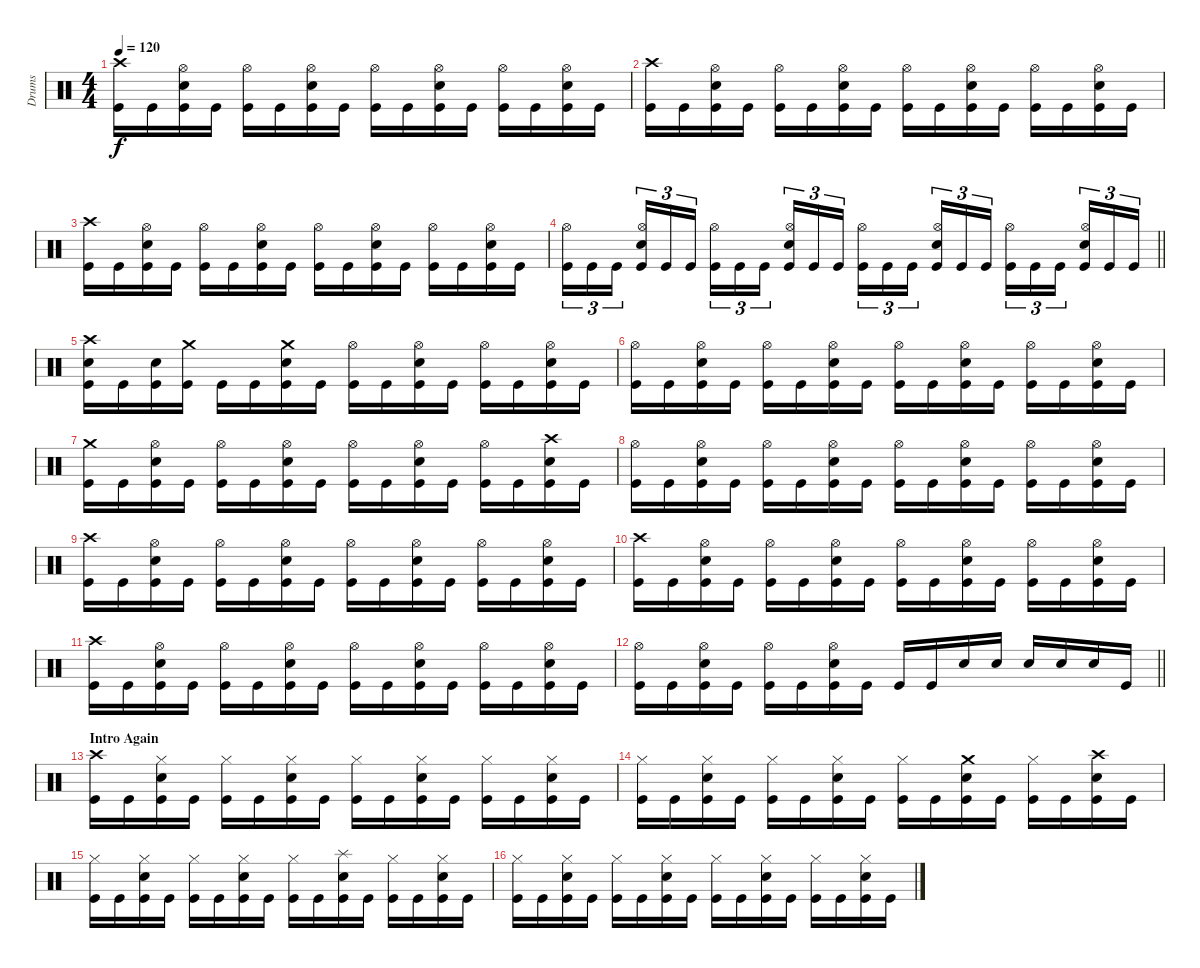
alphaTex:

\track ("Drums" "Drums") {instrument percussion}
\staff {score}
\articulation defaults
\ts (4 4)
\tempo 120
\clef neutral
\ks c
("Crash high (hit)" "Kick (hit)").16{dy f} "Kick (hit)".16 ("Hi-Hat (open)" "Electric Snare (hit)" "Kick (hit)").16 "Kick (hit)".16 ("Hi-Hat (open)" "Kick (hit)").16 "Kick (hit)".16 ("Hi-Hat (open)" "Electric Snare (hit)" "Kick (hit)").16 "Kick (hit)".16 ("Hi-Hat (open)" "Kick (hit)").16 "Kick (hit)".16 ("Hi-Hat (open)" "Electric Snare (hit)" "Kick (hit)").16 "Kick (hit)".16 ("Hi-Hat (open)" "Kick (hit)").16 "Kick (hit)".16 ("Hi-Hat (open)" "Electric Snare (hit)" "Kick (hit)").16 "Kick (hit)".16 |
("Crash high (hit)" "Kick (hit)").16 "Kick (hit)".16 ("Hi-Hat (open)" "Electric Snare (hit)" "Kick (hit)").16 "Kick (hit)".16 ("Hi-Hat (open)" "Kick (hit)").16 "Kick (hit)".16 ("Hi-Hat (open)" "Electric Snare (hit)" "Kick (hit)").16 "Kick (hit)".16 ("Hi-Hat (open)" "Kick (hit)").16 "Kick (hit)".16 ("Hi-Hat (open)" "Electric Snare (hit)" "Kick (hit)").16 "Kick (hit)".16 ("Hi-Hat (open)" "Kick (hit)").16 "Kick (hit)".16 ("Hi-Hat (open)" "Electric Snare (hit)" "Kick (hit)").16 "Kick (hit)".16 |
("Crash high (hit)" "Kick (hit)").16 "Kick (hit)".16 ("Hi-Hat (open)" "Electric Snare (hit)" "Kick (hit)").16 "Kick (hit)".16 ("Hi-Hat (open)" "Kick (hit)").16 "Kick (hit)".16 ("Hi-Hat (open)" "Electric Snare (hit)" "Kick (hit)").16 "Kick (hit)".16 ("Hi-Hat (open)" "Kick (hit)").16 "Kick (hit)".16 ("Hi-Hat (open)" "Electric Snare (hit)" "Kick (hit)").16 "Kick (hit)".16 ("Hi-Hat (open)" "Kick (hit)").16 "Kick (hit)".16 ("Hi-Hat (open)" "Electric Snare (hit)" "Kick (hit)").16 "Kick (hit)".16 |
\barLineRight lightlight
("Hi-Hat (open)" "Kick (hit)").16{tu (3 2)} "Kick (hit)".16{tu (3 2)} "Kick (hit)".16{tu (3 2)} ("Hi-Hat (open)" "Electric Snare (hit)" "Kick (hit)").16{tu (3 2)} "Kick (hit)".16{tu (3 2)} "Kick (hit)".16{tu (3 2)} ("Hi-Hat (open)" "Kick (hit)").16{tu (3 2)} "Kick (hit)".16{tu (3 2)} "Kick (hit)".16{tu (3 2)} ("Hi-Hat (open)" "Electric Snare (hit)" "Kick (hit)").16{tu (3 2)} "Kick (hit)".16{tu (3 2)} "Kick (hit)".16{tu (3 2)} ("Hi-Hat (open)" "Kick (hit)").16{tu (3 2)} "Kick (hit)".16{tu (3 2)} "Kick (hit)".16{tu (3 2)} ("Hi-Hat (open)" "Electric Snare (hit)" "Kick (hit)").16{tu (3 2)} "Kick (hit)".16{tu (3 2)} "Kick (hit)".16{tu (3 2)} ("Hi-Hat (open)" "Kick (hit)").16{tu (3 2)} "Kick (hit)".16{tu (3 2)} "Kick (hit)".16{tu (3 2)} ("Hi-Hat (open)" "Electric Snare (hit)" "Kick (hit)").16{tu (3 2)} "Kick (hit)".16{tu (3 2)} "Kick (hit)".16{tu (3 2)} |
("Crash high (hit)" "Electric Snare (hit)" "Kick (hit)").16 "Kick (hit)".16 ("Electric Snare (hit)" "Kick (hit)").16 ("Crash medium (hit)" "Kick (hit)").16 "Kick (hit)".16 "Kick (hit)".16 ("Crash medium (hit)" "Electric Snare (hit)" "Kick (hit)").16 "Kick (hit)".16 ("Hi-Hat (open)" "Kick (hit)").16 "Kick (hit)".16 ("Hi-Hat (open)" "Electric Snare (hit)" "Kick (hit)").16 "Kick (hit)".16 ("Hi-Hat (open)" "Kick (hit)").16 "Kick (hit)".16 ("Hi-Hat (open)" "Electric Snare (hit)" "Kick (hit)").16 "Kick (hit)".16 |
("Hi-Hat (open)" "Kick (hit)").16 "Kick (hit)".16 ("Hi-Hat (open)" "Electric Snare (hit)" "Kick (hit)").16 "Kick (hit)".16 ("Hi-Hat (open)" "Kick (hit)").16 "Kick (hit)".16 ("Hi-Hat (open)" "Electric Snare (hit)" "Kick (hit)").16 "Kick (hit)".16 ("Hi-Hat (open)" "Kick (hit)").16 "Kick (hit)".16 ("Hi-Hat (open)" "Electric Snare (hit)" "Kick (hit)").16 "Kick (hit)".16 ("Hi-Hat (open)" "Kick (hit)").16 "Kick (hit)".16 ("Hi-Hat (open)" "Electric Snare (hit)" "Kick (hit)").16 "Kick (hit)".16 |
("Crash medium (hit)" "Kick (hit)").16 "Kick (hit)".16 ("Hi-Hat (open)" "Electric Snare (hit)" "Kick (hit)").16 "Kick (hit)".16 ("Hi-Hat (open)" "Kick (hit)").16 "Kick (hit)".16 ("Hi-Hat (open)" "Electric Snare (hit)" "Kick (hit)").16 "Kick (hit)".16 ("Hi-Hat (open)" "Kick (hit)").16 "Kick (hit)".16 ("Hi-Hat (open)" "Electric Snare (hit)" "Kick (hit)").16 "Kick (hit)".16 ("Hi-Hat (open)" "Kick (hit)").16 "Kick (hit)".16 ("Crash high (hit)" "Electric Snare (hit)" "Kick (hit)").16 "Kick (hit)".16 |
("Hi-Hat (open)" "Kick (hit)").16 "Kick (hit)".16 ("Hi-Hat (open)" "Electric Snare (hit)" "Kick (hit)").16 "Kick (hit)".16 ("Hi-Hat (open)" "Kick (hit)").16 "Kick (hit)".16 ("Hi-Hat (open)" "Electric Snare (hit)" "Kick (hit)").16 "Kick (hit)".16 ("Hi-Hat (open)" "Kick (hit)").16 "Kick (hit)".16 ("Hi-Hat (open)" "Electric Snare (hit)" "Kick (hit)").16 "Kick (hit)".16 ("Hi-Hat (open)" "Kick (hit)").16 "Kick (hit)".16 ("Hi-Hat (open)" "Electric Snare (hit)" "Kick (hit)").16 "Kick (hit)".16 |
("Crash high (hit)" "Kick (hit)").16 "Kick (hit)".16 ("Hi-Hat (open)" "Electric Snare (hit)" "Kick (hit)").16 "Kick (hit)".16 ("Hi-Hat (open)" "Kick (hit)").16 "Kick (hit)".16 ("Hi-Hat (open)" "Electric Snare (hit)" "Kick (hit)").16 "Kick (hit)".16 ("Hi-Hat (open)" "Kick (hit)").16 "Kick (hit)".16 ("Hi-Hat (open)" "Electric Snare (hit)" "Kick (hit)").16 "Kick (hit)".16 ("Hi-Hat (open)" "Kick (hit)").16 "Kick (hit)".16 ("Hi-Hat (open)" "Electric Snare (hit)" "Kick (hit)").16 "Kick (hit)".16 |
("Crash high (hit)" "Kick (hit)").16 "Kick (hit)".16 ("Hi-Hat (open)" "Electric Snare (hit)" "Kick (hit)").16 "Kick (hit)".16 ("Hi-Hat (open)" "Kick (hit)").16 "Kick (hit)".16 ("Hi-Hat (open)" "Electric Snare (hit)" "Kick (hit)").16 "Kick (hit)".16 ("Hi-Hat (open)" "Kick (hit)").16 "Kick (hit)".16 ("Hi-Hat (open)" "Electric Snare (hit)" "Kick (hit)").16 "Kick (hit)".16 ("Hi-Hat (open)" "Kick (hit)").16 "Kick (hit)".16 ("Hi-Hat (open)" "Electric Snare (hit)" "Kick (hit)").16 "Kick (hit)".16 |
("Crash high (hit)" "Kick (hit)").16 "Kick (hit)".16 ("Hi-Hat (open)" "Electric Snare (hit)" "Kick (hit)").16 "Kick (hit)".16 ("Hi-Hat (open)" "Kick (hit)").16 "Kick (hit)".16 ("Hi-Hat (open)" "Electric Snare (hit)" "Kick (hit)").16 "Kick (hit)".16 ("Hi-Hat (open)" "Kick (hit)").16 "Kick (hit)".16 ("Hi-Hat (open)" "Electric Snare (hit)" "Kick (hit)").16 "Kick (hit)".16 ("Hi-Hat (open)" "Kick (hit)").16 "Kick (hit)".16 ("Hi-Hat (open)" "Electric Snare (hit)" "Kick (hit)").16 "Kick (hit)".16 |
\barLineRight lightlight
("Hi-Hat (open)" "Kick (hit)").16 "Kick (hit)".16 ("Hi-Hat (open)" "Electric Snare (hit)" "Kick (hit)").16 "Kick (hit)".16 ("Hi-Hat (open)" "Kick (hit)").16 "Kick (hit)".16 ("Hi-Hat (open)" "Electric Snare (hit)" "Kick (hit)").16 "Kick (hit)".16 "Kick (hit)".16 "Kick (hit)".16 "Electric Snare (hit)".16 "Electric Snare (hit)".16 "Electric Snare (hit)".16 "Electric Snare (hit)".16 "Electric Snare (hit)".16 "Kick (hit)".16 |
\section ("" "Intro Again")
("Crash high (hit)" "Kick (hit)").16 "Kick (hit)".16 ("Hi-Hat (closed)" "Electric Snare (hit)" "Kick (hit)").16 "Kick (hit)".16 ("Hi-Hat (closed)" "Kick (hit)").16 "Kick (hit)".16 ("Hi-Hat (closed)" "Electric Snare (hit)" "Kick (hit)").16 "Kick (hit)".16 ("Hi-Hat (closed)" "Kick (hit)").16 "Kick (hit)".16 ("Hi-Hat (closed)" "Electric Snare (hit)" "Kick (hit)").16 "Kick (hit)".16 ("Hi-Hat (closed)" "Kick (hit)").16 "Kick (hit)".16 ("Hi-Hat (closed)" "Electric Snare (hit)" "Kick (hit)").16 "Kick (hit)".16 |
("Hi-Hat (closed)" "Kick (hit)").16 "Kick (hit)".16 ("Hi-Hat (closed)" "Electric Snare (hit)" "Kick (hit)").16 "Kick (hit)".16 ("Hi-Hat (closed)" "Kick (hit)").16 "Kick (hit)".16 ("Hi-Hat (closed)" "Electric Snare (hit)" "Kick (hit)").16 "Kick (hit)".16 ("Hi-Hat (closed)" "Kick (hit)").16 "Kick (hit)".16 ("Crash medium (hit)" "Electric Snare (hit)" "Kick (hit)").16 "Kick (hit)".16 ("Hi-Hat (closed)" "Kick (hit)").16 "Kick (hit)".16 ("Crash high (hit)" "Electric Snare (hit)" "Kick (hit)").16 "Kick (hit)".16 |
("Hi-Hat (closed)" "Kick (hit)").16 "Kick (hit)".16 ("Hi-Hat (closed)" "Electric Snare (hit)" "Kick (hit)").16 "Kick (hit)".16 ("Hi-Hat (closed)" "Kick (hit)").16 "Kick (hit)".16 ("Hi-Hat (closed)" "Electric Snare (hit)" "Kick (hit)").16 "Kick (hit)".16 ("Hi-Hat (closed)" "Kick (hit)").16 "Kick (hit)".16 ("Splash (hit)" "Electric Snare (hit)" "Kick (hit)").16 "Kick (hit)".16 ("Hi-Hat (closed)" "Kick (hit)").16 "Kick (hit)".16 ("Hi-Hat (closed)" "Electric Snare (hit)" "Kick (hit)").16 "Kick (hit)".16 |
("Hi-Hat (closed)" "Kick (hit)").16 "Kick (hit)".16 ("Hi-Hat (closed)" "Electric Snare (hit)" "Kick (hit)").16 "Kick (hit)".16 ("Hi-Hat (closed)" "Kick (hit)").16 "Kick (hit)".16 ("Hi-Hat (closed)" "Electric Snare (hit)" "Kick (hit)").16 "Kick (hit)".16 ("Hi-Hat (closed)" "Kick (hit)").16 "Kick (hit)".16 ("Hi-Hat (closed)" "Electric Snare (hit)" "Kick (hit)").16 "Kick (hit)".16 ("Hi-Hat (closed)" "Kick (hit)").16 "Kick (hit)".16 ("Hi-Hat (closed)" "Electric Snare (hit)" "Kick (hit)").16 "Kick (hit)".16
